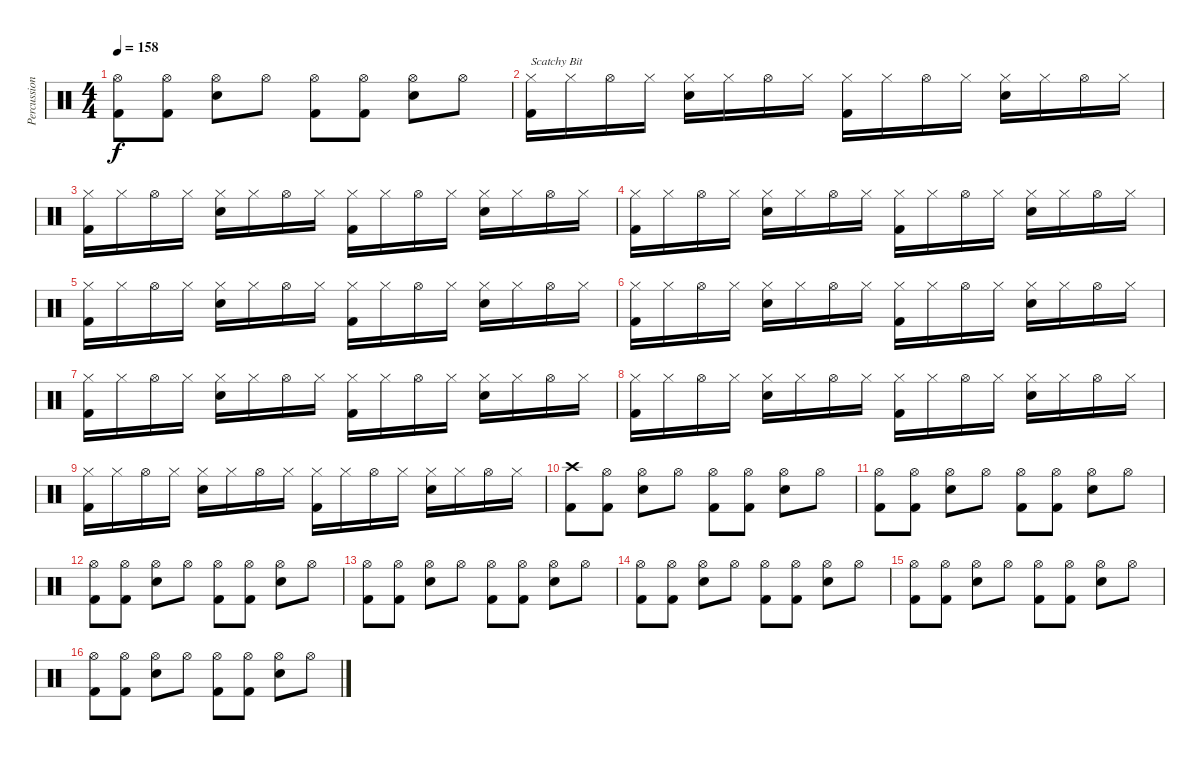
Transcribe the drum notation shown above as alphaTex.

\track ("Percussion" "Percussion") {instrument percussion}
\staff {score}
\articulation defaults
\ts (4 4)
\tempo 158
\clef neutral
\ks c
("Hi-Hat (open)" "Kick (hit) 2").8{dy f} ("Hi-Hat (open)" "Kick (hit) 2").8 ("Hi-Hat (open)" "Electric Snare (hit)").8 "Hi-Hat (open)".8 ("Hi-Hat (open)" "Kick (hit) 2").8 ("Hi-Hat (open)" "Kick (hit) 2").8 ("Hi-Hat (open)" "Electric Snare (hit)").8 "Hi-Hat (open)".8 |
("Hi-Hat (closed)" "Kick (hit) 2").16{txt "Scatchy Bit"} "Hi-Hat (closed)".16 "Hi-Hat (open)".16 "Hi-Hat (closed)".16 ("Hi-Hat (closed)" "Electric Snare (hit)").16 "Hi-Hat (closed)".16 "Hi-Hat (open)".16 "Hi-Hat (closed)".16 ("Hi-Hat (closed)" "Kick (hit) 2").16 "Hi-Hat (closed)".16 "Hi-Hat (open)".16 "Hi-Hat (closed)".16 ("Hi-Hat (closed)" "Electric Snare (hit)").16 "Hi-Hat (closed)".16 "Hi-Hat (open)".16 "Hi-Hat (closed)".16 |
("Hi-Hat (closed)" "Kick (hit) 2").16 "Hi-Hat (closed)".16 "Hi-Hat (open)".16 "Hi-Hat (closed)".16 ("Hi-Hat (closed)" "Electric Snare (hit)").16 "Hi-Hat (closed)".16 "Hi-Hat (open)".16 "Hi-Hat (closed)".16 ("Hi-Hat (closed)" "Kick (hit) 2").16 "Hi-Hat (closed)".16 "Hi-Hat (open)".16 "Hi-Hat (closed)".16 ("Hi-Hat (closed)" "Electric Snare (hit)").16 "Hi-Hat (closed)".16 "Hi-Hat (open)".16 "Hi-Hat (closed)".16 |
("Hi-Hat (closed)" "Kick (hit) 2").16 "Hi-Hat (closed)".16 "Hi-Hat (open)".16 "Hi-Hat (closed)".16 ("Hi-Hat (closed)" "Electric Snare (hit)").16 "Hi-Hat (closed)".16 "Hi-Hat (open)".16 "Hi-Hat (closed)".16 ("Hi-Hat (closed)" "Kick (hit) 2").16 "Hi-Hat (closed)".16 "Hi-Hat (open)".16 "Hi-Hat (closed)".16 ("Hi-Hat (closed)" "Electric Snare (hit)").16 "Hi-Hat (closed)".16 "Hi-Hat (open)".16 "Hi-Hat (closed)".16 |
("Hi-Hat (closed)" "Kick (hit) 2").16 "Hi-Hat (closed)".16 "Hi-Hat (open)".16 "Hi-Hat (closed)".16 ("Hi-Hat (closed)" "Electric Snare (hit)").16 "Hi-Hat (closed)".16 "Hi-Hat (open)".16 "Hi-Hat (closed)".16 ("Hi-Hat (closed)" "Kick (hit) 2").16 "Hi-Hat (closed)".16 "Hi-Hat (open)".16 "Hi-Hat (closed)".16 ("Hi-Hat (closed)" "Electric Snare (hit)").16 "Hi-Hat (closed)".16 "Hi-Hat (open)".16 "Hi-Hat (closed)".16 |
("Hi-Hat (closed)" "Kick (hit) 2").16 "Hi-Hat (closed)".16 "Hi-Hat (open)".16 "Hi-Hat (closed)".16 ("Hi-Hat (closed)" "Electric Snare (hit)").16 "Hi-Hat (closed)".16 "Hi-Hat (open)".16 "Hi-Hat (closed)".16 ("Hi-Hat (closed)" "Kick (hit) 2").16 "Hi-Hat (closed)".16 "Hi-Hat (open)".16 "Hi-Hat (closed)".16 ("Hi-Hat (closed)" "Electric Snare (hit)").16 "Hi-Hat (closed)".16 "Hi-Hat (open)".16 "Hi-Hat (closed)".16 |
("Hi-Hat (closed)" "Kick (hit) 2").16 "Hi-Hat (closed)".16 "Hi-Hat (open)".16 "Hi-Hat (closed)".16 ("Hi-Hat (closed)" "Electric Snare (hit)").16 "Hi-Hat (closed)".16 "Hi-Hat (open)".16 "Hi-Hat (closed)".16 ("Hi-Hat (closed)" "Kick (hit) 2").16 "Hi-Hat (closed)".16 "Hi-Hat (open)".16 "Hi-Hat (closed)".16 ("Hi-Hat (closed)" "Electric Snare (hit)").16 "Hi-Hat (closed)".16 "Hi-Hat (open)".16 "Hi-Hat (closed)".16 |
("Hi-Hat (closed)" "Kick (hit) 2").16 "Hi-Hat (closed)".16 "Hi-Hat (open)".16 "Hi-Hat (closed)".16 ("Hi-Hat (closed)" "Electric Snare (hit)").16 "Hi-Hat (closed)".16 "Hi-Hat (open)".16 "Hi-Hat (closed)".16 ("Hi-Hat (closed)" "Kick (hit) 2").16 "Hi-Hat (closed)".16 "Hi-Hat (open)".16 "Hi-Hat (closed)".16 ("Hi-Hat (closed)" "Electric Snare (hit)").16 "Hi-Hat (closed)".16 "Hi-Hat (open)".16 "Hi-Hat (closed)".16 |
("Hi-Hat (closed)" "Kick (hit) 2").16 "Hi-Hat (closed)".16 "Hi-Hat (open)".16 "Hi-Hat (closed)".16 ("Hi-Hat (closed)" "Electric Snare (hit)").16 "Hi-Hat (closed)".16 "Hi-Hat (open)".16 "Hi-Hat (closed)".16 ("Hi-Hat (closed)" "Kick (hit) 2").16 "Hi-Hat (closed)".16 "Hi-Hat (open)".16 "Hi-Hat (closed)".16 ("Hi-Hat (closed)" "Electric Snare (hit)").16 "Hi-Hat (closed)".16 "Hi-Hat (open)".16 "Hi-Hat (closed)".16 |
("Crash high (hit)" "Kick (hit) 2").8 ("Hi-Hat (open)" "Kick (hit) 2").8 ("Hi-Hat (open)" "Electric Snare (hit)").8 "Hi-Hat (open)".8 ("Hi-Hat (open)" "Kick (hit) 2").8 ("Hi-Hat (open)" "Kick (hit) 2").8 ("Hi-Hat (open)" "Electric Snare (hit)").8 "Hi-Hat (open)".8 |
("Hi-Hat (open)" "Kick (hit) 2").8 ("Hi-Hat (open)" "Kick (hit) 2").8 ("Hi-Hat (open)" "Electric Snare (hit)").8 "Hi-Hat (open)".8 ("Hi-Hat (open)" "Kick (hit) 2").8 ("Hi-Hat (open)" "Kick (hit) 2").8 ("Hi-Hat (open)" "Electric Snare (hit)").8 "Hi-Hat (open)".8 |
("Hi-Hat (open)" "Kick (hit) 2").8 ("Hi-Hat (open)" "Kick (hit) 2").8 ("Hi-Hat (open)" "Electric Snare (hit)").8 "Hi-Hat (open)".8 ("Hi-Hat (open)" "Kick (hit) 2").8 ("Hi-Hat (open)" "Kick (hit) 2").8 ("Hi-Hat (open)" "Electric Snare (hit)").8 "Hi-Hat (open)".8 |
("Hi-Hat (open)" "Kick (hit) 2").8 ("Hi-Hat (open)" "Kick (hit) 2").8 ("Hi-Hat (open)" "Electric Snare (hit)").8 "Hi-Hat (open)".8 ("Hi-Hat (open)" "Kick (hit) 2").8 ("Hi-Hat (open)" "Kick (hit) 2").8 ("Hi-Hat (open)" "Electric Snare (hit)").8 "Hi-Hat (open)".8 |
("Hi-Hat (open)" "Kick (hit) 2").8 ("Hi-Hat (open)" "Kick (hit) 2").8 ("Hi-Hat (open)" "Electric Snare (hit)").8 "Hi-Hat (open)".8 ("Hi-Hat (open)" "Kick (hit) 2").8 ("Hi-Hat (open)" "Kick (hit) 2").8 ("Hi-Hat (open)" "Electric Snare (hit)").8 "Hi-Hat (open)".8 |
("Hi-Hat (open)" "Kick (hit) 2").8 ("Hi-Hat (open)" "Kick (hit) 2").8 ("Hi-Hat (open)" "Electric Snare (hit)").8 "Hi-Hat (open)".8 ("Hi-Hat (open)" "Kick (hit) 2").8 ("Hi-Hat (open)" "Kick (hit) 2").8 ("Hi-Hat (open)" "Electric Snare (hit)").8 "Hi-Hat (open)".8 |
("Hi-Hat (open)" "Kick (hit) 2").8 ("Hi-Hat (open)" "Kick (hit) 2").8 ("Hi-Hat (open)" "Electric Snare (hit)").8 "Hi-Hat (open)".8 ("Hi-Hat (open)" "Kick (hit) 2").8 ("Hi-Hat (open)" "Kick (hit) 2").8 ("Hi-Hat (open)" "Electric Snare (hit)").8 "Hi-Hat (open)".8
